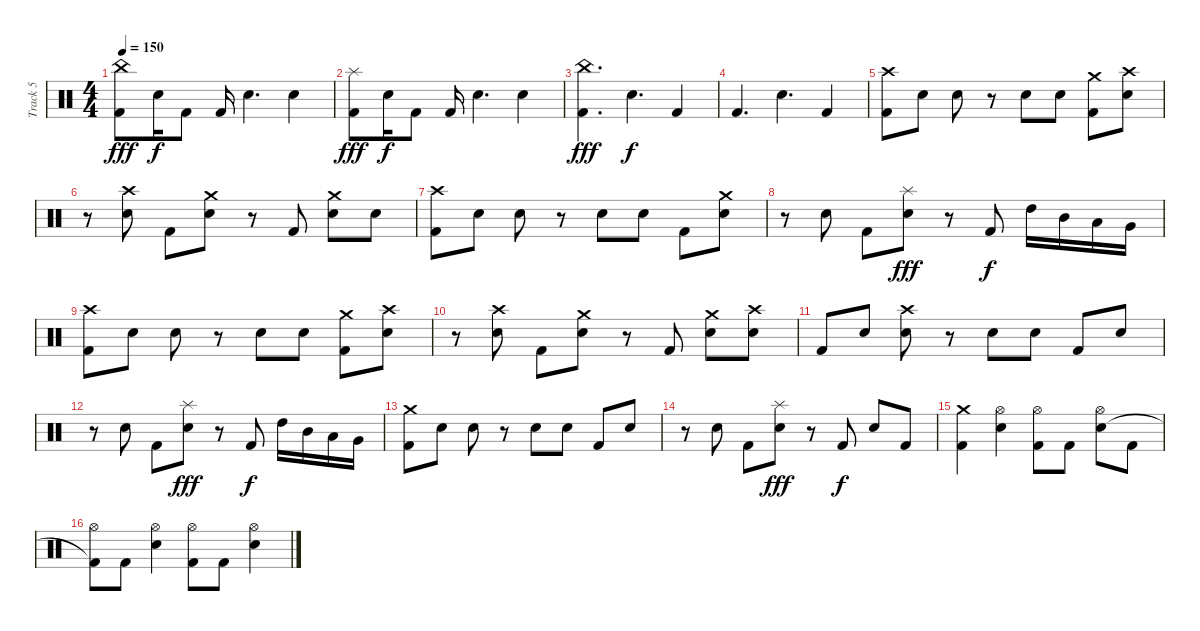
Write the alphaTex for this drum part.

\track ("Track 5" "Track 5") {instrument percussion}
\staff {score}
\articulation defaults
\ts (4 4)
\tempo 150
\clef neutral
\ks c
("China (hit)" "Kick (hit) 2").8{dy fff} "Electric Snare (hit)".16{dy f} "Kick (hit) 2".8 "Kick (hit) 2".16 "Electric Snare (hit)".4{d} "Electric Snare (hit)".4 |
("Splash (hit)" "Kick (hit) 2").8{dy fff} "Electric Snare (hit)".16{dy f} "Kick (hit) 2".8 "Kick (hit) 2".16 "Electric Snare (hit)".4{d} "Electric Snare (hit)".4 |
("China (hit)" "Kick (hit) 2").4{d dy fff} "Electric Snare (hit)".4{d dy f} "Kick (hit) 2".4 |
"Kick (hit) 2".4{d} "Electric Snare (hit)".4{d} "Kick (hit) 2".4 |
("Crash high (hit)" "Kick (hit) 2").8 "Electric Snare (hit)".8 "Electric Snare (hit)".8 r.8 "Electric Snare (hit)".8 "Electric Snare (hit)".8 ("Crash medium (hit)" "Kick (hit) 2").8 ("Crash high (hit)" "Electric Snare (hit)").8 |
r.8 ("Crash high (hit)" "Electric Snare (hit)").8 "Kick (hit) 2".8 ("Crash medium (hit)" "Electric Snare (hit)").8 r.8 "Kick (hit) 2".8 ("Crash medium (hit)" "Electric Snare (hit)").8 "Electric Snare (hit)".8 |
("Crash high (hit)" "Kick (hit) 2").8 "Electric Snare (hit)".8 "Electric Snare (hit)".8 r.8 "Electric Snare (hit)".8 "Electric Snare (hit)".8 "Kick (hit) 2".8 ("Crash medium (hit)" "Electric Snare (hit)").8 |
r.8 "Electric Snare (hit)".8 "Kick (hit) 2".8 ("Splash (hit)" "Electric Snare (hit)").8{dy fff} r.8 "Kick (hit) 2".8{dy f} "High Tom (hit)".16 "Mid Tom (hit)".16 "Low Tom (hit)".16 "Very Low Tom (hit)".16 |
("Crash high (hit)" "Kick (hit) 2").8 "Electric Snare (hit)".8 "Electric Snare (hit)".8 r.8 "Electric Snare (hit)".8 "Electric Snare (hit)".8 ("Crash medium (hit)" "Kick (hit) 2").8 ("Crash high (hit)" "Electric Snare (hit)").8 |
r.8 ("Crash high (hit)" "Electric Snare (hit)").8 "Kick (hit) 2".8 ("Crash medium (hit)" "Electric Snare (hit)").8 r.8 "Kick (hit) 2".8 ("Crash medium (hit)" "Electric Snare (hit)").8 ("Crash high (hit)" "Electric Snare (hit)").8 |
"Kick (hit) 2".8 "Electric Snare (hit)".8 ("Crash high (hit)" "Electric Snare (hit)").8 r.8 "Electric Snare (hit)".8 "Electric Snare (hit)".8 "Kick (hit) 2".8 "Electric Snare (hit)".8 |
r.8 "Electric Snare (hit)".8 "Kick (hit) 2".8 ("Splash (hit)" "Electric Snare (hit)").8{dy fff} r.8 "Kick (hit) 2".8{dy f} "High Tom (hit)".16 "Mid Tom (hit)".16 "Low Tom (hit)".16 "Very Low Tom (hit)".16 |
("Crash medium (hit)" "Kick (hit) 2").8 "Electric Snare (hit)".8 "Electric Snare (hit)".8 r.8 "Electric Snare (hit)".8 "Electric Snare (hit)".8 "Kick (hit) 2".8 "Electric Snare (hit)".8 |
r.8 "Electric Snare (hit)".8 "Kick (hit) 2".8 ("Splash (hit)" "Electric Snare (hit)").8{dy fff} r.8 "Kick (hit) 2".8{dy f} "Electric Snare (hit)".8 "Kick (hit) 2".8 |
("Crash medium (hit)" "Kick (hit) 2").4 ("Hi-Hat (open)" "Electric Snare (hit)").4 ("Hi-Hat (open)" "Kick (hit) 2").8 "Kick (hit) 2".8 ("Hi-Hat (open)" "Electric Snare (hit)").8 "Kick (hit) 2".8 |
("Hi-Hat (open)" "Kick (hit) 2"{t}).8 "Kick (hit) 2".8 ("Hi-Hat (open)" "Electric Snare (hit)").4 ("Hi-Hat (open)" "Kick (hit) 2").8 "Kick (hit) 2".8 ("Hi-Hat (open)" "Electric Snare (hit)").4
